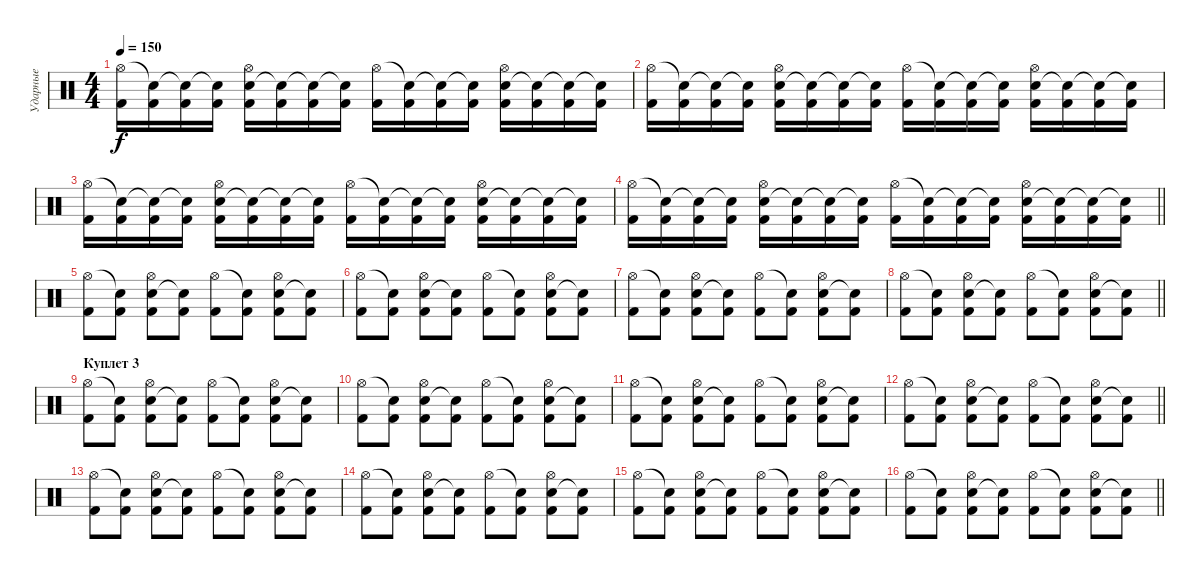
\track ("Ударные" "Ударные") {instrument percussion}
\staff {score}
\articulation defaults
\ts (4 4)
\section ("" "")
\tempo 150
\clef neutral
\ks c
("Hi-Hat (open)" "Kick (hit) 2").16{dy f} ("Snare (hit)"{t} "Kick (hit) 2").16 ("Snare (hit)"{t} "Kick (hit) 2").16 ("Snare (hit)"{t} "Kick (hit) 2").16 ("Electric Snare (hit)" "Hi-Hat (open)" "Kick (hit) 2").16 ("Snare (hit)"{t} "Kick (hit) 2").16 ("Snare (hit)"{t} "Kick (hit) 2").16 ("Snare (hit)"{t} "Kick (hit) 2").16 ("Hi-Hat (open)" "Kick (hit) 2").16 ("Snare (hit)"{t} "Kick (hit) 2").16 ("Snare (hit)"{t} "Kick (hit) 2").16 ("Snare (hit)"{t} "Kick (hit) 2").16 ("Electric Snare (hit)" "Hi-Hat (open)" "Kick (hit) 2").16 ("Snare (hit)"{t} "Kick (hit) 2").16 ("Snare (hit)"{t} "Kick (hit) 2").16 ("Snare (hit)"{t} "Kick (hit) 2").16 |
("Hi-Hat (open)" "Kick (hit) 2").16 ("Snare (hit)"{t} "Kick (hit) 2").16 ("Snare (hit)"{t} "Kick (hit) 2").16 ("Snare (hit)"{t} "Kick (hit) 2").16 ("Electric Snare (hit)" "Hi-Hat (open)" "Kick (hit) 2").16 ("Snare (hit)"{t} "Kick (hit) 2").16 ("Snare (hit)"{t} "Kick (hit) 2").16 ("Snare (hit)"{t} "Kick (hit) 2").16 ("Hi-Hat (open)" "Kick (hit) 2").16 ("Snare (hit)"{t} "Kick (hit) 2").16 ("Snare (hit)"{t} "Kick (hit) 2").16 ("Snare (hit)"{t} "Kick (hit) 2").16 ("Electric Snare (hit)" "Hi-Hat (open)" "Kick (hit) 2").16 ("Snare (hit)"{t} "Kick (hit) 2").16 ("Snare (hit)"{t} "Kick (hit) 2").16 ("Snare (hit)"{t} "Kick (hit) 2").16 |
("Hi-Hat (open)" "Kick (hit) 2").16 ("Snare (hit)"{t} "Kick (hit) 2").16 ("Snare (hit)"{t} "Kick (hit) 2").16 ("Snare (hit)"{t} "Kick (hit) 2").16 ("Electric Snare (hit)" "Hi-Hat (open)" "Kick (hit) 2").16 ("Snare (hit)"{t} "Kick (hit) 2").16 ("Snare (hit)"{t} "Kick (hit) 2").16 ("Snare (hit)"{t} "Kick (hit) 2").16 ("Hi-Hat (open)" "Kick (hit) 2").16 ("Snare (hit)"{t} "Kick (hit) 2").16 ("Snare (hit)"{t} "Kick (hit) 2").16 ("Snare (hit)"{t} "Kick (hit) 2").16 ("Electric Snare (hit)" "Hi-Hat (open)" "Kick (hit) 2").16 ("Snare (hit)"{t} "Kick (hit) 2").16 ("Snare (hit)"{t} "Kick (hit) 2").16 ("Snare (hit)"{t} "Kick (hit) 2").16 |
\barLineRight lightlight
("Hi-Hat (open)" "Kick (hit) 2").16 ("Snare (hit)"{t} "Kick (hit) 2").16 ("Snare (hit)"{t} "Kick (hit) 2").16 ("Snare (hit)"{t} "Kick (hit) 2").16 ("Electric Snare (hit)" "Hi-Hat (open)" "Kick (hit) 2").16 ("Snare (hit)"{t} "Kick (hit) 2").16 ("Snare (hit)"{t} "Kick (hit) 2").16 ("Snare (hit)"{t} "Kick (hit) 2").16 ("Hi-Hat (open)" "Kick (hit) 2").16 ("Snare (hit)"{t} "Kick (hit) 2").16 ("Snare (hit)"{t} "Kick (hit) 2").16 ("Snare (hit)"{t} "Kick (hit) 2").16 ("Electric Snare (hit)" "Hi-Hat (open)" "Kick (hit) 2").16 ("Snare (hit)"{t} "Kick (hit) 2").16 ("Snare (hit)"{t} "Kick (hit) 2").16 ("Snare (hit)"{t} "Kick (hit) 2").16 |
("Hi-Hat (open)" "Kick (hit) 2").8 ("Snare (hit)"{t} "Kick (hit) 2").8 ("Electric Snare (hit)" "Hi-Hat (open)" "Kick (hit) 2").8 ("Snare (hit)"{t} "Kick (hit) 2").8 ("Hi-Hat (open)" "Kick (hit) 2").8 ("Snare (hit)"{t} "Kick (hit) 2").8 ("Electric Snare (hit)" "Hi-Hat (open)" "Kick (hit) 2").8 ("Snare (hit)"{t} "Kick (hit) 2").8 |
("Hi-Hat (open)" "Kick (hit) 2").8 ("Snare (hit)"{t} "Kick (hit) 2").8 ("Electric Snare (hit)" "Hi-Hat (open)" "Kick (hit) 2").8 ("Snare (hit)"{t} "Kick (hit) 2").8 ("Hi-Hat (open)" "Kick (hit) 2").8 ("Snare (hit)"{t} "Kick (hit) 2").8 ("Electric Snare (hit)" "Hi-Hat (open)" "Kick (hit) 2").8 ("Snare (hit)"{t} "Kick (hit) 2").8 |
("Hi-Hat (open)" "Kick (hit) 2").8 ("Snare (hit)"{t} "Kick (hit) 2").8 ("Electric Snare (hit)" "Hi-Hat (open)" "Kick (hit) 2").8 ("Snare (hit)"{t} "Kick (hit) 2").8 ("Hi-Hat (open)" "Kick (hit) 2").8 ("Snare (hit)"{t} "Kick (hit) 2").8 ("Electric Snare (hit)" "Hi-Hat (open)" "Kick (hit) 2").8 ("Snare (hit)"{t} "Kick (hit) 2").8 |
\barLineRight lightlight
("Hi-Hat (open)" "Kick (hit) 2").8 ("Snare (hit)"{t} "Kick (hit) 2").8 ("Electric Snare (hit)" "Hi-Hat (open)" "Kick (hit) 2").8 ("Snare (hit)"{t} "Kick (hit) 2").8 ("Hi-Hat (open)" "Kick (hit) 2").8 ("Snare (hit)"{t} "Kick (hit) 2").8 ("Electric Snare (hit)" "Hi-Hat (open)" "Kick (hit) 2").8 ("Snare (hit)"{t} "Kick (hit) 2").8 |
\section ("" "Куплет 3")
("Hi-Hat (open)" "Kick (hit) 2").8 ("Snare (hit)"{t} "Kick (hit) 2").8 ("Electric Snare (hit)" "Hi-Hat (open)" "Kick (hit) 2").8 ("Snare (hit)"{t} "Kick (hit) 2").8 ("Hi-Hat (open)" "Kick (hit) 2").8 ("Snare (hit)"{t} "Kick (hit) 2").8 ("Electric Snare (hit)" "Hi-Hat (open)" "Kick (hit) 2").8 ("Snare (hit)"{t} "Kick (hit) 2").8 |
("Hi-Hat (open)" "Kick (hit) 2").8 ("Snare (hit)"{t} "Kick (hit) 2").8 ("Electric Snare (hit)" "Hi-Hat (open)" "Kick (hit) 2").8 ("Snare (hit)"{t} "Kick (hit) 2").8 ("Hi-Hat (open)" "Kick (hit) 2").8 ("Snare (hit)"{t} "Kick (hit) 2").8 ("Electric Snare (hit)" "Hi-Hat (open)" "Kick (hit) 2").8 ("Snare (hit)"{t} "Kick (hit) 2").8 |
("Hi-Hat (open)" "Kick (hit) 2").8 ("Snare (hit)"{t} "Kick (hit) 2").8 ("Electric Snare (hit)" "Hi-Hat (open)" "Kick (hit) 2").8 ("Snare (hit)"{t} "Kick (hit) 2").8 ("Hi-Hat (open)" "Kick (hit) 2").8 ("Snare (hit)"{t} "Kick (hit) 2").8 ("Electric Snare (hit)" "Hi-Hat (open)" "Kick (hit) 2").8 ("Snare (hit)"{t} "Kick (hit) 2").8 |
\barLineRight lightlight
("Hi-Hat (open)" "Kick (hit) 2").8 ("Snare (hit)"{t} "Kick (hit) 2").8 ("Electric Snare (hit)" "Hi-Hat (open)" "Kick (hit) 2").8 ("Snare (hit)"{t} "Kick (hit) 2").8 ("Hi-Hat (open)" "Kick (hit) 2").8 ("Snare (hit)"{t} "Kick (hit) 2").8 ("Electric Snare (hit)" "Hi-Hat (open)" "Kick (hit) 2").8 ("Snare (hit)"{t} "Kick (hit) 2").8 |
("Hi-Hat (open)" "Kick (hit) 2").8 ("Snare (hit)"{t} "Kick (hit) 2").8 ("Electric Snare (hit)" "Hi-Hat (open)" "Kick (hit) 2").8 ("Snare (hit)"{t} "Kick (hit) 2").8 ("Hi-Hat (open)" "Kick (hit) 2").8 ("Snare (hit)"{t} "Kick (hit) 2").8 ("Electric Snare (hit)" "Hi-Hat (open)" "Kick (hit) 2").8 ("Snare (hit)"{t} "Kick (hit) 2").8 |
("Hi-Hat (open)" "Kick (hit) 2").8 ("Snare (hit)"{t} "Kick (hit) 2").8 ("Electric Snare (hit)" "Hi-Hat (open)" "Kick (hit) 2").8 ("Snare (hit)"{t} "Kick (hit) 2").8 ("Hi-Hat (open)" "Kick (hit) 2").8 ("Snare (hit)"{t} "Kick (hit) 2").8 ("Electric Snare (hit)" "Hi-Hat (open)" "Kick (hit) 2").8 ("Snare (hit)"{t} "Kick (hit) 2").8 |
("Hi-Hat (open)" "Kick (hit) 2").8 ("Snare (hit)"{t} "Kick (hit) 2").8 ("Electric Snare (hit)" "Hi-Hat (open)" "Kick (hit) 2").8 ("Snare (hit)"{t} "Kick (hit) 2").8 ("Hi-Hat (open)" "Kick (hit) 2").8 ("Snare (hit)"{t} "Kick (hit) 2").8 ("Electric Snare (hit)" "Hi-Hat (open)" "Kick (hit) 2").8 ("Snare (hit)"{t} "Kick (hit) 2").8 |
\barLineRight lightlight
("Hi-Hat (open)" "Kick (hit) 2").8 ("Snare (hit)"{t} "Kick (hit) 2").8 ("Electric Snare (hit)" "Hi-Hat (open)" "Kick (hit) 2").8 ("Snare (hit)"{t} "Kick (hit) 2").8 ("Hi-Hat (open)" "Kick (hit) 2").8 ("Snare (hit)"{t} "Kick (hit) 2").8 ("Electric Snare (hit)" "Hi-Hat (open)" "Kick (hit) 2").8 ("Snare (hit)"{t} "Kick (hit) 2").8
